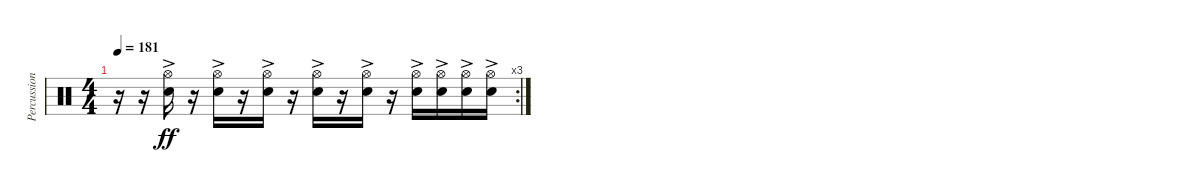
\track ("Percussion" "Percussion") {instrument percussion}
\staff {score}
\articulation defaults
\rc 3
\ts (4 4)
\tempo 181
\clef neutral
\ks c
r.16{dy ff} r.16 ("Hi-Hat (open)"{ac} "Snare (hit) 2"{ac}).16 r.16 ("Hi-Hat (open)"{ac} "Snare (hit) 2"{ac}).16 r.16 ("Hi-Hat (open)"{ac} "Snare (hit) 2"{ac}).16 r.16 ("Hi-Hat (open)"{ac} "Snare (hit) 2"{ac}).16 r.16 ("Hi-Hat (open)"{ac} "Snare (hit) 2"{ac}).16 r.16 ("Hi-Hat (open)"{ac} "Snare (hit) 2"{ac}).16 ("Hi-Hat (open)"{ac} "Snare (hit) 2"{ac}).16 ("Hi-Hat (open)"{ac} "Snare (hit) 2"{ac}).16 ("Hi-Hat (open)"{ac} "Snare (hit) 2"{ac}).16
